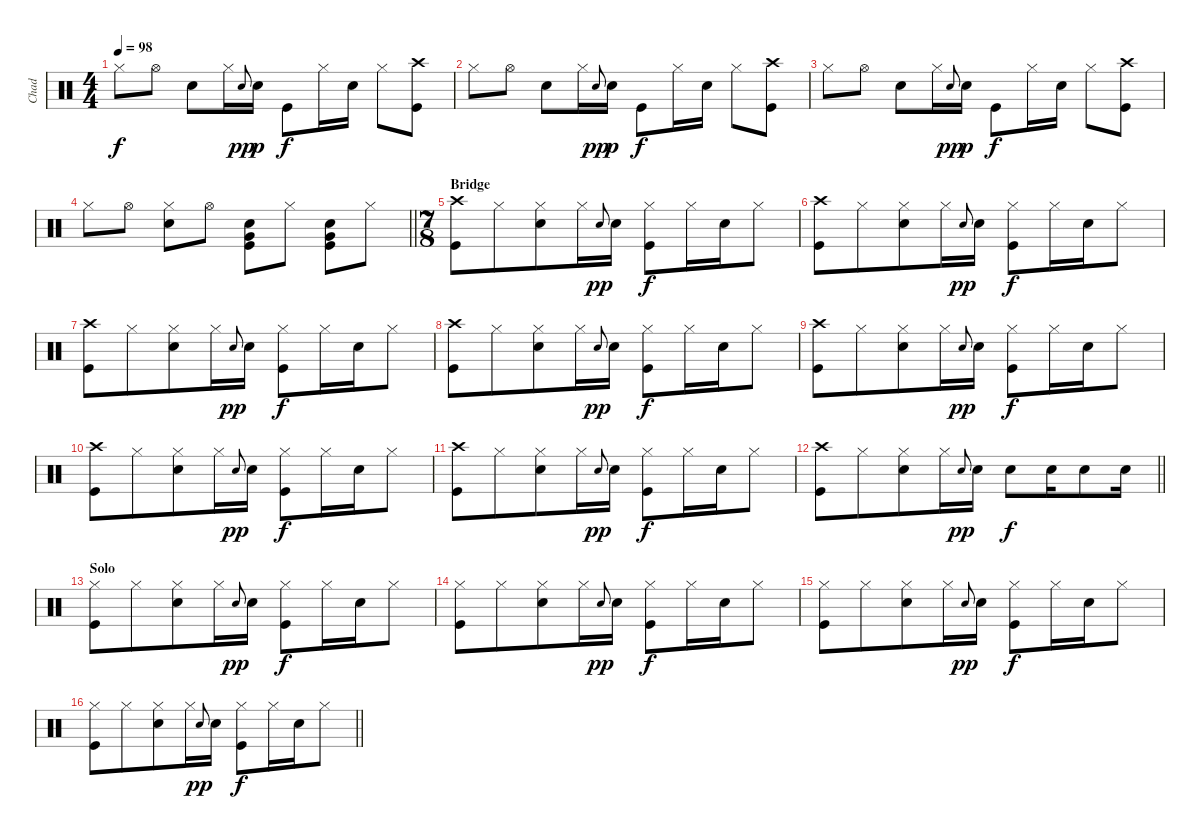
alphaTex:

\track ("Chad" "Chad") {instrument percussion}
\staff {score}
\articulation defaults
\ts (4 4)
\tempo 98
\clef neutral
\ks c "Hi-Hat (closed)".8{dy f} "Hi-Hat (open)".8 "Snare (hit) 2".8 "Hi-Hat (closed)".16 "Snare (hit) 2".8{gr onbeat dy pp} "Snare (hit) 2".16{dy p} "Kick (hit)".8{dy f} "Hi-Hat (closed)".16 "Snare (hit) 2".16 "Hi-Hat (closed)".8
("Crash high (hit)" "Kick (hit)").8 |
"Hi-Hat (closed)".8 "Hi-Hat (open)".8 "Snare (hit) 2".8 "Hi-Hat (closed)".16 "Snare (hit) 2".8{gr onbeat dy pp} "Snare (hit) 2".16{dy p} "Kick (hit)".8{dy f} "Hi-Hat (closed)".16 "Snare (hit) 2".16 "Hi-Hat (closed)".8 ("Crash high (hit)" "Kick (hit)").8 |
"Hi-Hat (closed)".8 "Hi-Hat (open)".8 "Snare (hit) 2".8 "Hi-Hat (closed)".16 "Snare (hit) 2".8{gr onbeat dy pp} "Snare (hit) 2".16{dy p} "Kick (hit)".8{dy f} "Hi-Hat (closed)".16 "Snare (hit) 2".16 "Hi-Hat (closed)".8 ("Crash high (hit)" "Kick (hit)").8 |
\barLineRight lightlight "Hi-Hat (closed)".8 "Hi-Hat (open)".8
("Hi-Hat (closed)" "Snare (hit) 2").8 "Hi-Hat (open)".8 ("Snare (hit) 2" "Kick (hit)" "Very Low Tom (hit)").8 "Hi-Hat (closed)".8 ("Kick (hit)" "Very Low Tom (hit)" "Snare (hit) 2").8 "Hi-Hat (closed)".8 |
\ts (7 8)
\section ("" "Bridge")
("Crash high (hit)" "Kick (hit)").8 "Hi-Hat (closed)".8 ("Hi-Hat (closed)" "Snare (hit) 2").8 "Hi-Hat (closed)".16 "Snare (hit) 2".8{gr onbeat dy pp} "Snare (hit) 2".16 ("Hi-Hat (closed)" "Kick (hit)").8{dy f} "Hi-Hat (closed)".16 "Snare (hit) 2".16 "Hi-Hat (closed)".8 |
("Crash high (hit)" "Kick (hit)").8 "Hi-Hat (closed)".8 ("Hi-Hat (closed)" "Snare (hit) 2").8 "Hi-Hat (closed)".16 "Snare (hit) 2".8{gr onbeat dy pp} "Snare (hit) 2".16 ("Hi-Hat (closed)" "Kick (hit)").8{dy f} "Hi-Hat (closed)".16 "Snare (hit) 2".16 "Hi-Hat (closed)".8 |
("Crash high (hit)" "Kick (hit)").8 "Hi-Hat (closed)".8 ("Hi-Hat (closed)" "Snare (hit) 2").8 "Hi-Hat (closed)".16 "Snare (hit) 2".8{gr onbeat dy pp} "Snare (hit) 2".16 ("Hi-Hat (closed)" "Kick (hit)").8{dy f} "Hi-Hat (closed)".16 "Snare (hit) 2".16 "Hi-Hat (closed)".8 |
("Crash high (hit)" "Kick (hit)").8 "Hi-Hat (closed)".8 ("Hi-Hat (closed)" "Snare (hit) 2").8 "Hi-Hat (closed)".16 "Snare (hit) 2".8{gr onbeat dy pp} "Snare (hit) 2".16 ("Hi-Hat (closed)" "Kick (hit)").8{dy f} "Hi-Hat (closed)".16 "Snare (hit) 2".16 "Hi-Hat (closed)".8 |
("Crash high (hit)" "Kick (hit)").8 "Hi-Hat (closed)".8 ("Hi-Hat (closed)" "Snare (hit) 2").8 "Hi-Hat (closed)".16 "Snare (hit) 2".8{gr onbeat dy pp} "Snare (hit) 2".16 ("Hi-Hat (closed)" "Kick (hit)").8{dy f} "Hi-Hat (closed)".16 "Snare (hit) 2".16 "Hi-Hat (closed)".8 |
("Crash high (hit)" "Kick (hit)").8 "Hi-Hat (closed)".8 ("Hi-Hat (closed)" "Snare (hit) 2").8 "Hi-Hat (closed)".16 "Snare (hit) 2".8{gr onbeat dy pp} "Snare (hit) 2".16 ("Hi-Hat (closed)" "Kick (hit)").8{dy f} "Hi-Hat (closed)".16 "Snare (hit) 2".16 "Hi-Hat (closed)".8 |
("Crash high (hit)" "Kick (hit)").8 "Hi-Hat (closed)".8 ("Hi-Hat (closed)" "Snare (hit) 2").8 "Hi-Hat (closed)".16 "Snare (hit) 2".8{gr onbeat dy pp} "Snare (hit) 2".16 ("Hi-Hat (closed)" "Kick (hit)").8{dy f} "Hi-Hat (closed)".16 "Snare (hit) 2".16 "Hi-Hat (closed)".8 |
\barLineRight lightlight
("Crash high (hit)" "Kick (hit)").8 "Hi-Hat (closed)".8 ("Hi-Hat (closed)" "Snare (hit) 2").8 "Hi-Hat (closed)".16 "Snare (hit) 2".8{gr onbeat dy pp} "Snare (hit) 2".16 "Snare (hit) 2".8{dy f} "Snare (hit) 2".16 "Snare (hit) 2".8 "Snare (hit) 2".16 |
\section ("" "Solo")
("Hi-Hat (closed)" "Kick (hit)").8 "Hi-Hat (closed)".8 ("Hi-Hat (closed)" "Snare (hit) 2").8 "Hi-Hat (closed)".16 "Snare (hit) 2".8{gr onbeat dy pp} "Snare (hit) 2".16 ("Hi-Hat (closed)" "Kick (hit)").8{dy f} "Hi-Hat (closed)".16 "Snare (hit) 2".16 "Hi-Hat (closed)".8 |
("Hi-Hat (closed)" "Kick (hit)").8 "Hi-Hat (closed)".8 ("Hi-Hat (closed)" "Snare (hit) 2").8 "Hi-Hat (closed)".16 "Snare (hit) 2".8{gr onbeat dy pp} "Snare (hit) 2".16 ("Hi-Hat (closed)" "Kick (hit)").8{dy f} "Hi-Hat (closed)".16 "Snare (hit) 2".16 "Hi-Hat (closed)".8 |
("Hi-Hat (closed)" "Kick (hit)").8 "Hi-Hat (closed)".8 ("Hi-Hat (closed)" "Snare (hit) 2").8 "Hi-Hat (closed)".16 "Snare (hit) 2".8{gr onbeat dy pp} "Snare (hit) 2".16 ("Hi-Hat (closed)" "Kick (hit)").8{dy f} "Hi-Hat (closed)".16 "Snare (hit) 2".16 "Hi-Hat (closed)".8 |
\barLineRight lightlight
("Hi-Hat (closed)" "Kick (hit)").8 "Hi-Hat (closed)".8 ("Hi-Hat (closed)" "Snare (hit) 2").8 "Hi-Hat (closed)".16 "Snare (hit) 2".8{gr onbeat dy pp} "Snare (hit) 2".16 ("Hi-Hat (closed)" "Kick (hit)").8{dy f} "Hi-Hat (closed)".16 "Snare (hit) 2".16 "Hi-Hat (closed)".8
